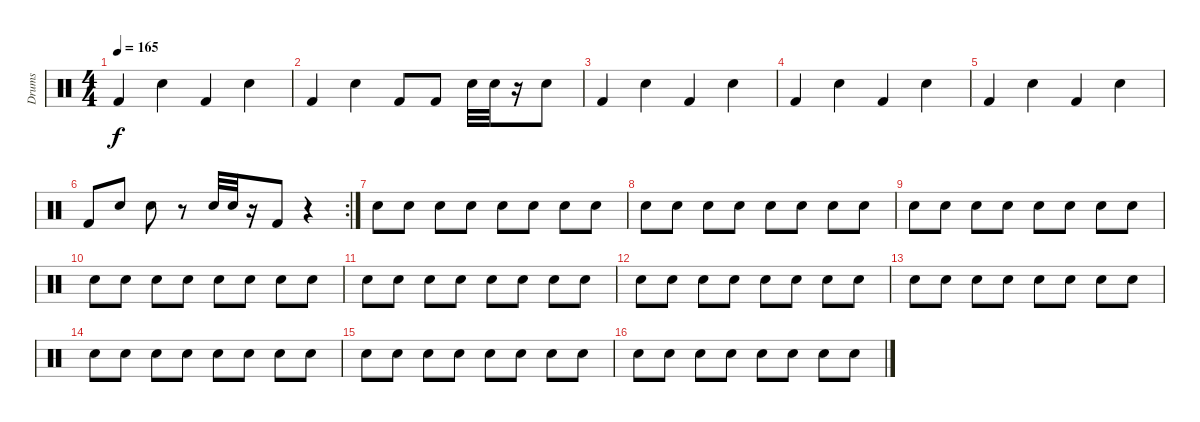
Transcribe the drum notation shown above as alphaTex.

\track ("Drums" "Drums") {instrument percussion}
\staff {score}
\articulation defaults
\ts (4 4)
\tempo 165
\clef neutral
\ks c "Kick (hit) 2".4{dy f} "Snare (hit) 2".4 "Kick (hit) 2".4 "Snare (hit) 2".4
|
"Kick (hit) 2".4 "Snare (hit) 2".4 "Kick (hit) 2".8 "Kick (hit) 2".8 "Snare (hit) 2".32 "Snare (hit) 2".32 r.16 "Snare (hit) 2".8 |
"Kick (hit) 2".4 "Snare (hit) 2".4 "Kick (hit) 2".4 "Snare (hit) 2".4 |
"Kick (hit) 2".4 "Snare (hit) 2".4 "Kick (hit) 2".4 "Snare (hit) 2".4 |
"Kick (hit) 2".4 "Snare (hit) 2".4 "Kick (hit) 2".4 "Snare (hit) 2".4 |
\rc 2 "Kick (hit) 2".8 "Snare (hit) 2".8 "Snare (hit) 2".8
r.8 "Snare (hit) 2".32 "Snare (hit) 2".32 r.16 "Kick (hit) 2".8 r.4 |
"Snare (hit) 2".8 "Snare (hit) 2".8 "Snare (hit) 2".8 "Snare (hit) 2".8 "Snare (hit) 2".8 "Snare (hit) 2".8 "Snare (hit) 2".8 "Snare (hit) 2".8 |
"Snare (hit) 2".8 "Snare (hit) 2".8 "Snare (hit) 2".8 "Snare (hit) 2".8 "Snare (hit) 2".8 "Snare (hit) 2".8 "Snare (hit) 2".8 "Snare (hit) 2".8 |
"Snare (hit) 2".8 "Snare (hit) 2".8 "Snare (hit) 2".8 "Snare (hit) 2".8 "Snare (hit) 2".8 "Snare (hit) 2".8 "Snare (hit) 2".8 "Snare (hit) 2".8 |
"Snare (hit) 2".8 "Snare (hit) 2".8 "Snare (hit) 2".8 "Snare (hit) 2".8 "Snare (hit) 2".8 "Snare (hit) 2".8 "Snare (hit) 2".8 "Snare (hit) 2".8 |
"Snare (hit) 2".8 "Snare (hit) 2".8 "Snare (hit) 2".8 "Snare (hit) 2".8 "Snare (hit) 2".8 "Snare (hit) 2".8 "Snare (hit) 2".8 "Snare (hit) 2".8 |
"Snare (hit) 2".8 "Snare (hit) 2".8 "Snare (hit) 2".8 "Snare (hit) 2".8 "Snare (hit) 2".8 "Snare (hit) 2".8 "Snare (hit) 2".8 "Snare (hit) 2".8 |
"Snare (hit) 2".8 "Snare (hit) 2".8 "Snare (hit) 2".8 "Snare (hit) 2".8 "Snare (hit) 2".8 "Snare (hit) 2".8 "Snare (hit) 2".8 "Snare (hit) 2".8 |
"Snare (hit) 2".8 "Snare (hit) 2".8 "Snare (hit) 2".8 "Snare (hit) 2".8 "Snare (hit) 2".8 "Snare (hit) 2".8 "Snare (hit) 2".8 "Snare (hit) 2".8 |
"Snare (hit) 2".8 "Snare (hit) 2".8 "Snare (hit) 2".8 "Snare (hit) 2".8 "Snare (hit) 2".8 "Snare (hit) 2".8 "Snare (hit) 2".8 "Snare (hit) 2".8 |
"Snare (hit) 2".8 "Snare (hit) 2".8 "Snare (hit) 2".8 "Snare (hit) 2".8 "Snare (hit) 2".8 "Snare (hit) 2".8 "Snare (hit) 2".8 "Snare (hit) 2".8
